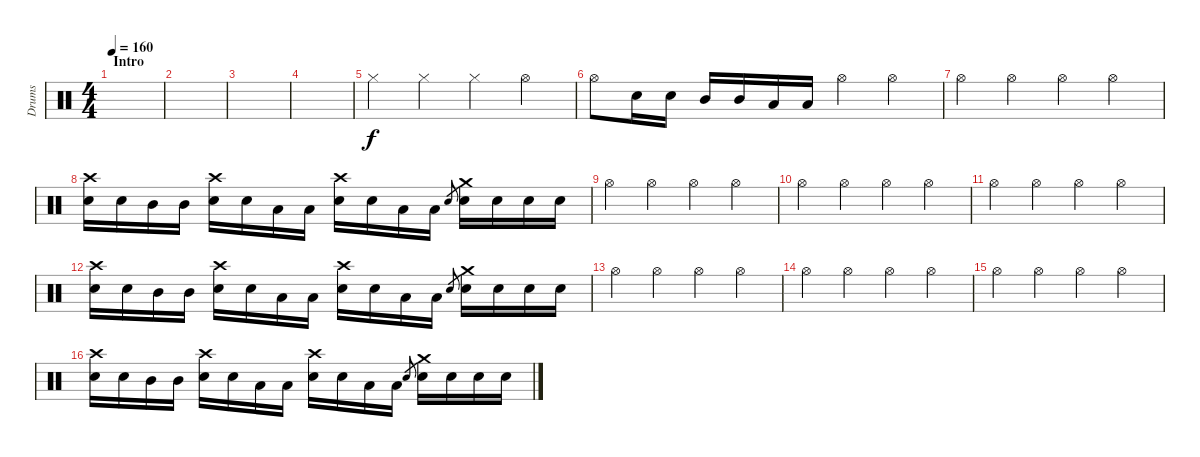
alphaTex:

\track ("Drums" "Drums") {instrument percussion}
\staff {score}
\articulation defaults
\ts (4 4)
\section ("" "Intro")
\tempo 160
\clef neutral
\ks c
|
|
|
|
"Hi-Hat (closed)".4 "Hi-Hat (closed)".4 "Hi-Hat (closed)".4 "Hi-Hat (open)".4 |
"Hi-Hat (open)".8 "Electric Snare (hit)".16 "Electric Snare (hit)".16 "Mid Tom (hit)".16 "Mid Tom (hit)".16 "Low Tom (hit)".16 "Low Tom (hit)".16 "Hi-Hat (open)".4 "Hi-Hat (open)".4 |
"Hi-Hat (open)".4 "Hi-Hat (open)".4 "Hi-Hat (open)".4 "Hi-Hat (open)".4 |
("Electric Snare (hit)" "Crash high (hit)").16 "Electric Snare (hit)".16 "Mid Tom (hit)".16 "Mid Tom (hit)".16 ("Electric Snare (hit)" "Crash high (hit)").16 "Electric Snare (hit)".16 "Low Tom (hit)".16 "Low Tom (hit)".16 ("Electric Snare (hit)" "Crash high (hit)").16 "Electric Snare (hit)".16 "Low Tom (hit)".16 "Low Tom (hit)".16 "Electric Snare (hit)".8{gr} ("Electric Snare (hit)" "Crash medium (hit)").16 "Electric Snare (hit)".16 "Electric Snare (hit)".16 "Electric Snare (hit)".16 |
"Hi-Hat (open)".4 "Hi-Hat (open)".4 "Hi-Hat (open)".4 "Hi-Hat (open)".4 |
"Hi-Hat (open)".4 "Hi-Hat (open)".4 "Hi-Hat (open)".4 "Hi-Hat (open)".4 |
"Hi-Hat (open)".4 "Hi-Hat (open)".4 "Hi-Hat (open)".4 "Hi-Hat (open)".4 |
("Electric Snare (hit)" "Crash high (hit)").16 "Electric Snare (hit)".16 "Mid Tom (hit)".16 "Mid Tom (hit)".16 ("Electric Snare (hit)" "Crash high (hit)").16 "Electric Snare (hit)".16 "Low Tom (hit)".16 "Low Tom (hit)".16 ("Electric Snare (hit)" "Crash high (hit)").16 "Electric Snare (hit)".16 "Low Tom (hit)".16 "Low Tom (hit)".16 "Electric Snare (hit)".8{gr} ("Electric Snare (hit)" "Crash medium (hit)").16 "Electric Snare (hit)".16 "Electric Snare (hit)".16 "Electric Snare (hit)".16 |
"Hi-Hat (open)".4 "Hi-Hat (open)".4 "Hi-Hat (open)".4 "Hi-Hat (open)".4 |
"Hi-Hat (open)".4 "Hi-Hat (open)".4 "Hi-Hat (open)".4 "Hi-Hat (open)".4 |
"Hi-Hat (open)".4 "Hi-Hat (open)".4 "Hi-Hat (open)".4 "Hi-Hat (open)".4 |
("Electric Snare (hit)" "Crash high (hit)").16 "Electric Snare (hit)".16 "Mid Tom (hit)".16 "Mid Tom (hit)".16 ("Electric Snare (hit)" "Crash high (hit)").16 "Electric Snare (hit)".16 "Low Tom (hit)".16 "Low Tom (hit)".16 ("Electric Snare (hit)" "Crash high (hit)").16 "Electric Snare (hit)".16 "Low Tom (hit)".16 "Low Tom (hit)".16 "Electric Snare (hit)".8{gr} ("Electric Snare (hit)" "Crash medium (hit)").16 "Electric Snare (hit)".16 "Electric Snare (hit)".16 "Electric Snare (hit)".16
